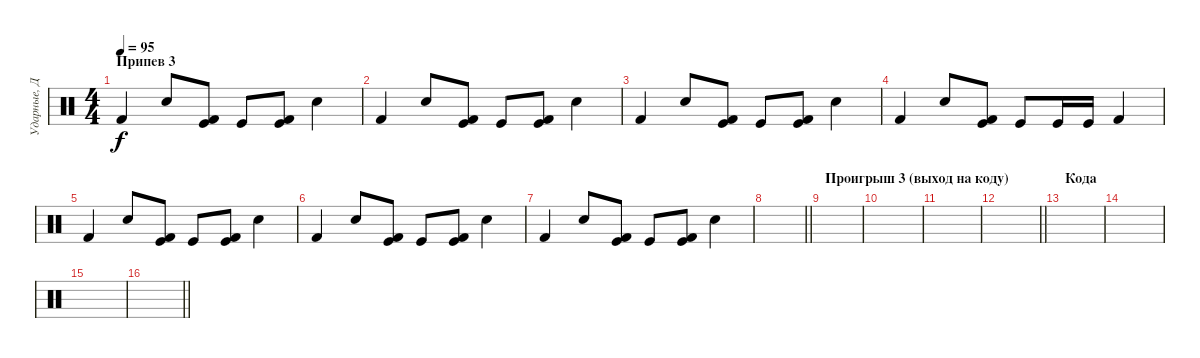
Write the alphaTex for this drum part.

\track ("Ударные, Дэн" "Ударные, Д") {instrument percussion}
\staff {score}
\articulation defaults
\ts (4 4)
\section ("" "Припев 3")
\tempo 95
\clef neutral
\ks c "Kick (hit) 2".4{dy f} "Electric Snare (hit)".8
("Kick (hit) 2" "Kick (hit)").8 "Kick (hit)".8 ("Kick (hit) 2" "Kick (hit)").8 "Electric Snare (hit)".4 |
"Kick (hit) 2".4 "Electric Snare (hit)".8 ("Kick (hit) 2" "Kick (hit)").8 "Kick (hit)".8 ("Kick (hit) 2" "Kick (hit)").8 "Electric Snare (hit)".4 |
"Kick (hit) 2".4 "Electric Snare (hit)".8 ("Kick (hit) 2" "Kick (hit)").8 "Kick (hit)".8 ("Kick (hit) 2" "Kick (hit)").8 "Electric Snare (hit)".4 |
"Kick (hit) 2".4 "Electric Snare (hit)".8 ("Kick (hit) 2" "Kick (hit)").8 "Kick (hit)".8 "Kick (hit)".16 "Kick (hit)".16 "Kick (hit) 2".4 |
"Kick (hit) 2".4 "Electric Snare (hit)".8 ("Kick (hit) 2" "Kick (hit)").8 "Kick (hit)".8 ("Kick (hit) 2" "Kick (hit)").8 "Electric Snare (hit)".4 |
"Kick (hit) 2".4 "Electric Snare (hit)".8 ("Kick (hit) 2" "Kick (hit)").8 "Kick (hit)".8 ("Kick (hit) 2" "Kick (hit)").8 "Electric Snare (hit)".4 |
"Kick (hit) 2".4 "Electric Snare (hit)".8 ("Kick (hit) 2" "Kick (hit)").8 "Kick (hit)".8 ("Kick (hit) 2" "Kick (hit)").8 "Electric Snare (hit)".4 |
\barLineRight lightlight
|
\section ("" "Проигрыш 3 (выход на коду)")
|
|
|
\barLineRight lightlight
|
\section ("" "Кода")
|
|
|
\barLineRight lightlight
